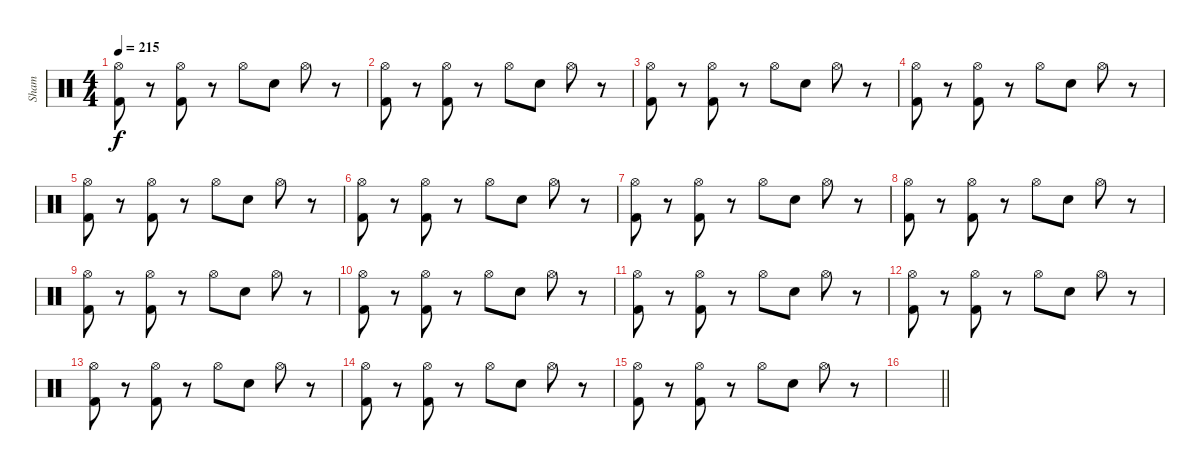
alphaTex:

\track ("Sham" "Sham") {instrument percussion}
\staff {score}
\articulation defaults
\ts (4 4)
\tempo 215
\clef neutral
\ks c
("Kick (hit) 2" "Hi-Hat (open)").8{dy f} r.8 ("Kick (hit) 2" "Hi-Hat (open)").8 r.8 "Hi-Hat (open)".8 "Electric Snare (hit)".8 "Hi-Hat (open)".8 r.8 |
("Kick (hit) 2" "Hi-Hat (open)").8 r.8 ("Kick (hit) 2" "Hi-Hat (open)").8 r.8 "Hi-Hat (open)".8 "Electric Snare (hit)".8 "Hi-Hat (open)".8 r.8 |
("Kick (hit) 2" "Hi-Hat (open)").8 r.8 ("Kick (hit) 2" "Hi-Hat (open)").8 r.8 "Hi-Hat (open)".8 "Electric Snare (hit)".8 "Hi-Hat (open)".8 r.8 |
("Kick (hit) 2" "Hi-Hat (open)").8 r.8 ("Kick (hit) 2" "Hi-Hat (open)").8 r.8 "Hi-Hat (open)".8 "Electric Snare (hit)".8 "Hi-Hat (open)".8 r.8 |
("Kick (hit) 2" "Hi-Hat (open)").8 r.8 ("Kick (hit) 2" "Hi-Hat (open)").8 r.8 "Hi-Hat (open)".8 "Electric Snare (hit)".8 "Hi-Hat (open)".8 r.8 |
("Kick (hit) 2" "Hi-Hat (open)").8 r.8 ("Kick (hit) 2" "Hi-Hat (open)").8 r.8 "Hi-Hat (open)".8 "Electric Snare (hit)".8 "Hi-Hat (open)".8 r.8 |
("Kick (hit) 2" "Hi-Hat (open)").8 r.8 ("Kick (hit) 2" "Hi-Hat (open)").8 r.8 "Hi-Hat (open)".8 "Electric Snare (hit)".8 "Hi-Hat (open)".8 r.8 |
("Kick (hit) 2" "Hi-Hat (open)").8 r.8 ("Kick (hit) 2" "Hi-Hat (open)").8 r.8 "Hi-Hat (open)".8 "Electric Snare (hit)".8 "Hi-Hat (open)".8 r.8 |
("Kick (hit) 2" "Hi-Hat (open)").8 r.8 ("Kick (hit) 2" "Hi-Hat (open)").8 r.8 "Hi-Hat (open)".8 "Electric Snare (hit)".8 "Hi-Hat (open)".8 r.8 |
("Kick (hit) 2" "Hi-Hat (open)").8 r.8 ("Kick (hit) 2" "Hi-Hat (open)").8 r.8 "Hi-Hat (open)".8 "Electric Snare (hit)".8 "Hi-Hat (open)".8 r.8 |
("Kick (hit) 2" "Hi-Hat (open)").8 r.8 ("Kick (hit) 2" "Hi-Hat (open)").8 r.8 "Hi-Hat (open)".8 "Electric Snare (hit)".8 "Hi-Hat (open)".8 r.8 |
("Kick (hit) 2" "Hi-Hat (open)").8 r.8 ("Kick (hit) 2" "Hi-Hat (open)").8 r.8 "Hi-Hat (open)".8 "Electric Snare (hit)".8 "Hi-Hat (open)".8 r.8 |
("Kick (hit) 2" "Hi-Hat (open)").8 r.8 ("Kick (hit) 2" "Hi-Hat (open)").8 r.8 "Hi-Hat (open)".8 "Electric Snare (hit)".8 "Hi-Hat (open)".8 r.8 |
("Kick (hit) 2" "Hi-Hat (open)").8 r.8 ("Kick (hit) 2" "Hi-Hat (open)").8 r.8 "Hi-Hat (open)".8 "Electric Snare (hit)".8 "Hi-Hat (open)".8 r.8 |
("Kick (hit) 2" "Hi-Hat (open)").8 r.8 ("Kick (hit) 2" "Hi-Hat (open)").8 r.8 "Hi-Hat (open)".8 "Electric Snare (hit)".8 "Hi-Hat (open)".8 r.8 |
\barLineRight lightlight
